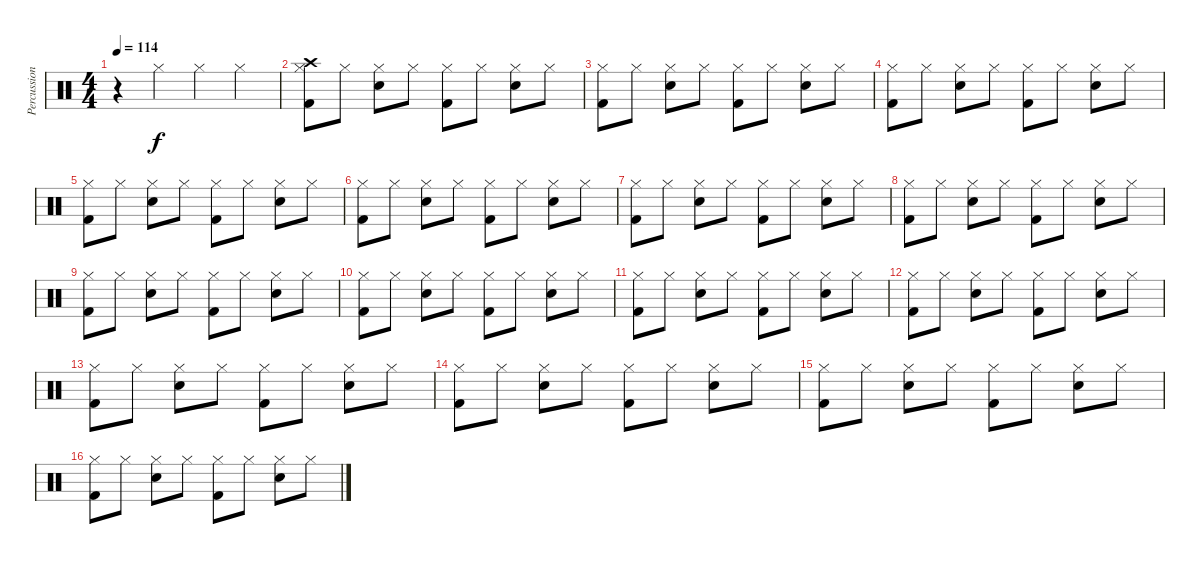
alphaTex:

\track ("Percussion" "Percussion") {instrument percussion}
\staff {score}
\articulation defaults
\ts (4 4)
\tempo 114
\clef neutral
\ks c
r.4{dy f} "Hi-Hat (closed)".4 "Hi-Hat (closed)".4 "Hi-Hat (closed)".4 |
("Crash high (hit)" "Hi-Hat (closed)" "Kick (hit) 2").8 "Hi-Hat (closed)".8 ("Hi-Hat (closed)" "Snare (hit) 2").8 "Hi-Hat (closed)".8 ("Hi-Hat (closed)" "Kick (hit) 2").8 "Hi-Hat (closed)".8 ("Hi-Hat (closed)" "Snare (hit) 2").8 "Hi-Hat (closed)".8 |
("Hi-Hat (closed)" "Kick (hit) 2").8 "Hi-Hat (closed)".8 ("Hi-Hat (closed)" "Snare (hit) 2").8 "Hi-Hat (closed)".8 ("Hi-Hat (closed)" "Kick (hit) 2").8 "Hi-Hat (closed)".8 ("Hi-Hat (closed)" "Snare (hit) 2").8 "Hi-Hat (closed)".8 |
("Hi-Hat (closed)" "Kick (hit) 2").8 "Hi-Hat (closed)".8 ("Hi-Hat (closed)" "Snare (hit) 2").8 "Hi-Hat (closed)".8 ("Hi-Hat (closed)" "Kick (hit) 2").8 "Hi-Hat (closed)".8 ("Hi-Hat (closed)" "Snare (hit) 2").8 "Hi-Hat (closed)".8 |
("Hi-Hat (closed)" "Kick (hit) 2").8 "Hi-Hat (closed)".8 ("Hi-Hat (closed)" "Snare (hit) 2").8 "Hi-Hat (closed)".8 ("Hi-Hat (closed)" "Kick (hit) 2").8 "Hi-Hat (closed)".8 ("Hi-Hat (closed)" "Snare (hit) 2").8 "Hi-Hat (closed)".8 |
("Hi-Hat (closed)" "Kick (hit) 2").8 "Hi-Hat (closed)".8 ("Hi-Hat (closed)" "Snare (hit) 2").8 "Hi-Hat (closed)".8 ("Hi-Hat (closed)" "Kick (hit) 2").8 "Hi-Hat (closed)".8 ("Hi-Hat (closed)" "Snare (hit) 2").8 "Hi-Hat (closed)".8 |
("Hi-Hat (closed)" "Kick (hit) 2").8 "Hi-Hat (closed)".8 ("Hi-Hat (closed)" "Snare (hit) 2").8 "Hi-Hat (closed)".8 ("Hi-Hat (closed)" "Kick (hit) 2").8 "Hi-Hat (closed)".8 ("Hi-Hat (closed)" "Snare (hit) 2").8 "Hi-Hat (closed)".8 |
("Hi-Hat (closed)" "Kick (hit) 2").8 "Hi-Hat (closed)".8 ("Hi-Hat (closed)" "Snare (hit) 2").8 "Hi-Hat (closed)".8 ("Hi-Hat (closed)" "Kick (hit) 2").8 "Hi-Hat (closed)".8 ("Hi-Hat (closed)" "Snare (hit) 2").8 "Hi-Hat (closed)".8 |
("Hi-Hat (closed)" "Kick (hit) 2").8 "Hi-Hat (closed)".8 ("Hi-Hat (closed)" "Snare (hit) 2").8 "Hi-Hat (closed)".8 ("Hi-Hat (closed)" "Kick (hit) 2").8 "Hi-Hat (closed)".8 ("Hi-Hat (closed)" "Snare (hit) 2").8 "Hi-Hat (closed)".8 |
("Hi-Hat (closed)" "Kick (hit) 2").8 "Hi-Hat (closed)".8 ("Hi-Hat (closed)" "Snare (hit) 2").8 "Hi-Hat (closed)".8 ("Hi-Hat (closed)" "Kick (hit) 2").8 "Hi-Hat (closed)".8 ("Hi-Hat (closed)" "Snare (hit) 2").8 "Hi-Hat (closed)".8 |
("Hi-Hat (closed)" "Kick (hit) 2").8 "Hi-Hat (closed)".8 ("Hi-Hat (closed)" "Snare (hit) 2").8 "Hi-Hat (closed)".8 ("Hi-Hat (closed)" "Kick (hit) 2").8 "Hi-Hat (closed)".8 ("Hi-Hat (closed)" "Snare (hit) 2").8 "Hi-Hat (closed)".8 |
("Hi-Hat (closed)" "Kick (hit) 2").8 "Hi-Hat (closed)".8 ("Hi-Hat (closed)" "Snare (hit) 2").8 "Hi-Hat (closed)".8 ("Hi-Hat (closed)" "Kick (hit) 2").8 "Hi-Hat (closed)".8 ("Hi-Hat (closed)" "Snare (hit) 2").8 "Hi-Hat (closed)".8 |
("Hi-Hat (closed)" "Kick (hit) 2").8 "Hi-Hat (closed)".8 ("Hi-Hat (closed)" "Snare (hit) 2").8 "Hi-Hat (closed)".8 ("Hi-Hat (closed)" "Kick (hit) 2").8 "Hi-Hat (closed)".8 ("Hi-Hat (closed)" "Snare (hit) 2").8 "Hi-Hat (closed)".8 |
("Hi-Hat (closed)" "Kick (hit) 2").8 "Hi-Hat (closed)".8 ("Hi-Hat (closed)" "Snare (hit) 2").8 "Hi-Hat (closed)".8 ("Hi-Hat (closed)" "Kick (hit) 2").8 "Hi-Hat (closed)".8 ("Hi-Hat (closed)" "Snare (hit) 2").8 "Hi-Hat (closed)".8 |
("Hi-Hat (closed)" "Kick (hit) 2").8 "Hi-Hat (closed)".8 ("Hi-Hat (closed)" "Snare (hit) 2").8 "Hi-Hat (closed)".8 ("Hi-Hat (closed)" "Kick (hit) 2").8 "Hi-Hat (closed)".8 ("Hi-Hat (closed)" "Snare (hit) 2").8 "Hi-Hat (closed)".8 |
("Hi-Hat (closed)" "Kick (hit) 2").8 "Hi-Hat (closed)".8 ("Hi-Hat (closed)" "Snare (hit) 2").8 "Hi-Hat (closed)".8 ("Hi-Hat (closed)" "Kick (hit) 2").8 "Hi-Hat (closed)".8 ("Hi-Hat (closed)" "Snare (hit) 2").8 "Hi-Hat (closed)".8
